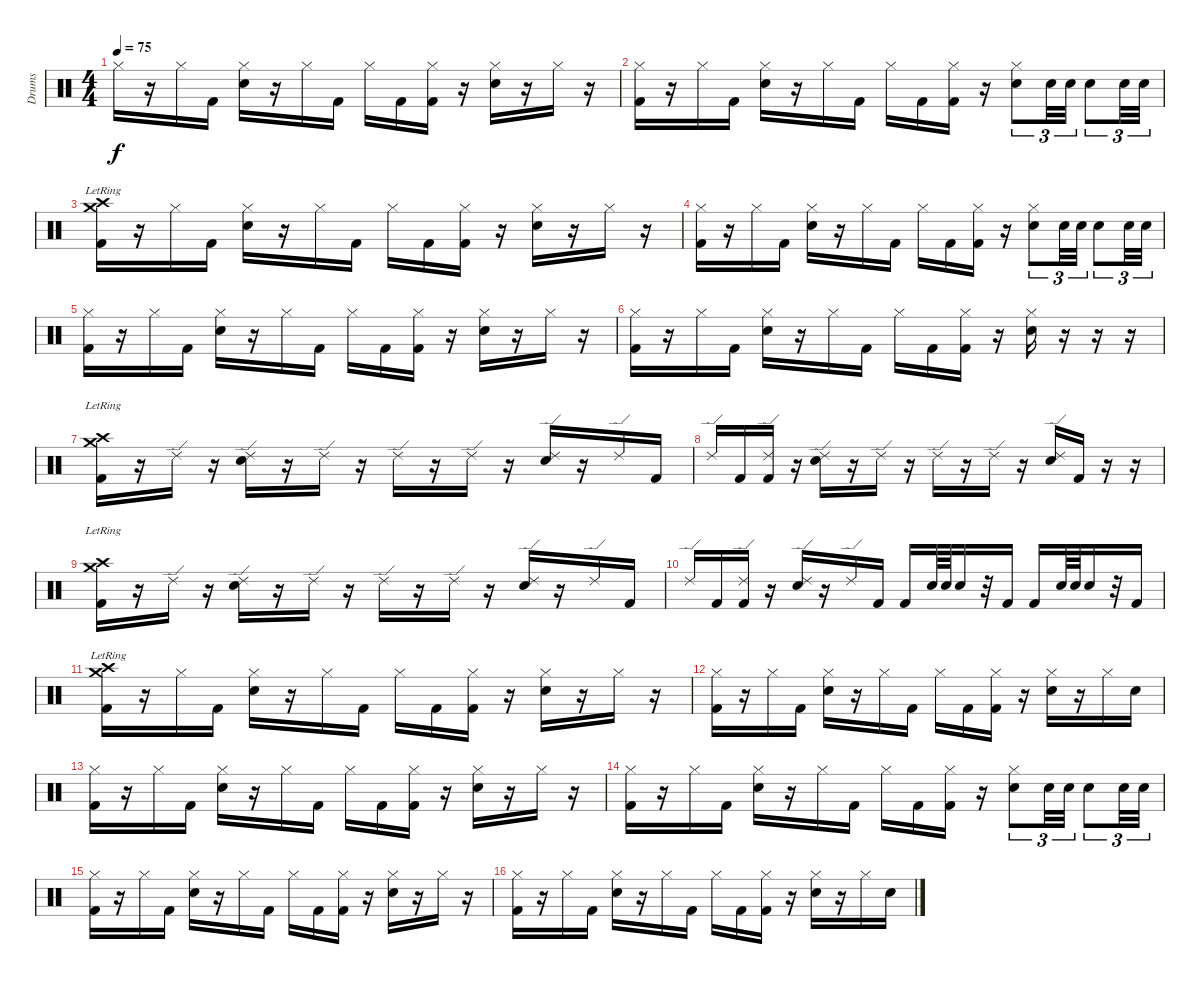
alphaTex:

\track ("Drums" "Drums") {instrument percussion}
\staff {score}
\articulation defaults
\ts (4 4)
\tempo 75
\clef neutral
\ks c "Hi-Hat (closed)".16{dy f}
r.16 "Hi-Hat (closed)".16 "Kick (hit) 2".16 ("Hi-Hat (closed)" "Snare (hit) 2").16 r.16 "Hi-Hat (closed)".16 "Kick (hit) 2".16 "Hi-Hat (closed)".16 "Kick (hit) 2".16 ("Hi-Hat (closed)" "Kick (hit) 2").16 r.16 ("Hi-Hat (closed)" "Snare (hit) 2").16 r.16 "Hi-Hat (closed)".16 r.16 |
("Hi-Hat (closed)" "Kick (hit) 2").16 r.16 "Hi-Hat (closed)".16 "Kick (hit) 2".16 ("Hi-Hat (closed)" "Snare (hit) 2").16 r.16 "Hi-Hat (closed)".16 "Kick (hit) 2".16 "Hi-Hat (closed)".16 "Kick (hit) 2".16 ("Hi-Hat (closed)" "Kick (hit) 2").16 r.16 ("Hi-Hat (closed)" "Snare (hit) 2").8{tu (3 2)} "Snare (hit) 2".32{tu (3 2)} "Snare (hit) 2".32{tu (3 2)} "Snare (hit) 2".8{tu (3 2)} "Snare (hit) 2".32{tu (3 2)} "Snare (hit) 2".32{tu (3 2)} |
("Crash high (hit)"{lr} "Crash medium (hit)"{lr} "Kick (hit) 2").16 r.16 "Hi-Hat (closed)".16 "Kick (hit) 2".16 ("Hi-Hat (closed)" "Snare (hit) 2").16 r.16 "Hi-Hat (closed)".16 "Kick (hit) 2".16 "Hi-Hat (closed)".16 "Kick (hit) 2".16 ("Hi-Hat (closed)" "Kick (hit) 2").16 r.16 ("Hi-Hat (closed)" "Snare (hit) 2").16 r.16 "Hi-Hat (closed)".16 r.16 |
("Hi-Hat (closed)" "Kick (hit) 2").16 r.16 "Hi-Hat (closed)".16 "Kick (hit) 2".16 ("Hi-Hat (closed)" "Snare (hit) 2").16 r.16 "Hi-Hat (closed)".16 "Kick (hit) 2".16 "Hi-Hat (closed)".16 "Kick (hit) 2".16 ("Hi-Hat (closed)" "Kick (hit) 2").16 r.16 ("Hi-Hat (closed)" "Snare (hit) 2").8{tu (3 2)} "Snare (hit) 2".32{tu (3 2)} "Snare (hit) 2".32{tu (3 2)} "Snare (hit) 2".8{tu (3 2)} "Snare (hit) 2".32{tu (3 2)} "Snare (hit) 2".32{tu (3 2)} |
("Hi-Hat (closed)" "Kick (hit) 2").16 r.16 "Hi-Hat (closed)".16 "Kick (hit) 2".16 ("Hi-Hat (closed)" "Snare (hit) 2").16 r.16 "Hi-Hat (closed)".16 "Kick (hit) 2".16 "Hi-Hat (closed)".16 "Kick (hit) 2".16 ("Hi-Hat (closed)" "Kick (hit) 2").16 r.16 ("Hi-Hat (closed)" "Snare (hit) 2").16 r.16 "Hi-Hat (closed)".16 r.16 |
("Hi-Hat (closed)" "Kick (hit) 2").16 r.16 "Hi-Hat (closed)".16 "Kick (hit) 2".16 ("Hi-Hat (closed)" "Snare (hit) 2").16 r.16 "Hi-Hat (closed)".16 "Kick (hit) 2".16 "Hi-Hat (closed)".16 "Kick (hit) 2".16 ("Hi-Hat (closed)" "Kick (hit) 2").16 r.16 ("Hi-Hat (closed)" "Snare (hit) 2").16 r.16 r.16 r.16 |
("Crash high (hit)"{lr} "Crash medium (hit)"{lr} "Kick (hit) 2").16 r.16 "Ride (edge) 2".16 r.16 ("Ride (edge) 2" "Snare (hit) 2").16 r.16 "Ride (edge) 2".16 r.16 "Ride (edge) 2".16 r.16 "Ride (edge) 2".16 r.16 ("Ride (edge) 2" "Snare (hit) 2").16 r.16 "Ride (edge) 2".16 "Kick (hit) 2".16 |
"Ride (edge) 2".16 "Kick (hit) 2".16 ("Ride (edge) 2" "Kick (hit) 2").16 r.16 ("Ride (edge) 2" "Snare (hit) 2").16 r.16 "Ride (edge) 2".16 r.16 "Ride (edge) 2".16 r.16 "Ride (edge) 2".16 r.16 ("Ride (edge) 2" "Snare (hit) 2").16 "Kick (hit) 2".16 r.16 r.16 |
("Crash high (hit)"{lr} "Crash medium (hit)"{lr} "Kick (hit) 2").16 r.16 "Ride (edge) 2".16 r.16 ("Ride (edge) 2" "Snare (hit) 2").16 r.16 "Ride (edge) 2".16 r.16 "Ride (edge) 2".16 r.16 "Ride (edge) 2".16 r.16 ("Ride (edge) 2" "Snare (hit) 2").16 r.16 "Ride (edge) 2".16 "Kick (hit) 2".16 |
"Ride (edge) 2".16 "Kick (hit) 2".16 ("Ride (edge) 2" "Kick (hit) 2").16 r.16 ("Ride (edge) 2" "Snare (hit) 2").16 r.16 "Ride (edge) 2".16 "Kick (hit) 2".16 "Kick (hit) 2".16 "Snare (hit) 2".64 "Snare (hit) 2".64 "Snare (hit) 2".16 r.32 "Kick (hit) 2".16 "Kick (hit) 2".16 "Snare (hit) 2".64 "Snare (hit) 2".64 "Snare (hit) 2".16 r.32 "Kick (hit) 2".16 |
("Crash high (hit)"{lr} "Crash medium (hit)"{lr} "Kick (hit) 2").16 r.16 "Hi-Hat (closed)".16 "Kick (hit) 2".16 ("Hi-Hat (closed)" "Snare (hit) 2").16 r.16 "Hi-Hat (closed)".16 "Kick (hit) 2".16 "Hi-Hat (closed)".16 "Kick (hit) 2".16 ("Hi-Hat (closed)" "Kick (hit) 2").16 r.16 ("Hi-Hat (closed)" "Snare (hit) 2").16 r.16 "Hi-Hat (closed)".16 r.16 |
("Hi-Hat (closed)" "Kick (hit) 2").16 r.16 "Hi-Hat (closed)".16 "Kick (hit) 2".16 ("Hi-Hat (closed)" "Snare (hit) 2").16 r.16 "Hi-Hat (closed)".16 "Kick (hit) 2".16 "Hi-Hat (closed)".16 "Kick (hit) 2".16 ("Hi-Hat (closed)" "Kick (hit) 2").16 r.16 ("Hi-Hat (closed)" "Snare (hit) 2").16 r.16 "Hi-Hat (closed)".16 "Snare (hit) 2".16 |
("Hi-Hat (closed)" "Kick (hit) 2").16 r.16 "Hi-Hat (closed)".16 "Kick (hit) 2".16 ("Hi-Hat (closed)" "Snare (hit) 2").16 r.16 "Hi-Hat (closed)".16 "Kick (hit) 2".16 "Hi-Hat (closed)".16 "Kick (hit) 2".16 ("Hi-Hat (closed)" "Kick (hit) 2").16 r.16 ("Hi-Hat (closed)" "Snare (hit) 2").16 r.16 "Hi-Hat (closed)".16 r.16 |
("Hi-Hat (closed)" "Kick (hit) 2").16 r.16 "Hi-Hat (closed)".16 "Kick (hit) 2".16 ("Hi-Hat (closed)" "Snare (hit) 2").16 r.16 "Hi-Hat (closed)".16 "Kick (hit) 2".16 "Hi-Hat (closed)".16 "Kick (hit) 2".16 ("Hi-Hat (closed)" "Kick (hit) 2").16 r.16 ("Hi-Hat (closed)" "Snare (hit) 2").8{tu (3 2)} "Snare (hit) 2".32{tu (3 2)} "Snare (hit) 2".32{tu (3 2)} "Snare (hit) 2".8{tu (3 2)} "Snare (hit) 2".32{tu (3 2)} "Snare (hit) 2".32{tu (3 2)} |
("Hi-Hat (closed)" "Kick (hit) 2").16 r.16 "Hi-Hat (closed)".16 "Kick (hit) 2".16 ("Hi-Hat (closed)" "Snare (hit) 2").16 r.16 "Hi-Hat (closed)".16 "Kick (hit) 2".16 "Hi-Hat (closed)".16 "Kick (hit) 2".16 ("Hi-Hat (closed)" "Kick (hit) 2").16 r.16 ("Hi-Hat (closed)" "Snare (hit) 2").16 r.16 "Hi-Hat (closed)".16 r.16 |
("Hi-Hat (closed)" "Kick (hit) 2").16 r.16 "Hi-Hat (closed)".16 "Kick (hit) 2".16 ("Hi-Hat (closed)" "Snare (hit) 2").16 r.16 "Hi-Hat (closed)".16 "Kick (hit) 2".16 "Hi-Hat (closed)".16 "Kick (hit) 2".16 ("Hi-Hat (closed)" "Kick (hit) 2").16 r.16 ("Hi-Hat (closed)" "Snare (hit) 2").16 r.16 "Hi-Hat (closed)".16 "Snare (hit) 2".16
